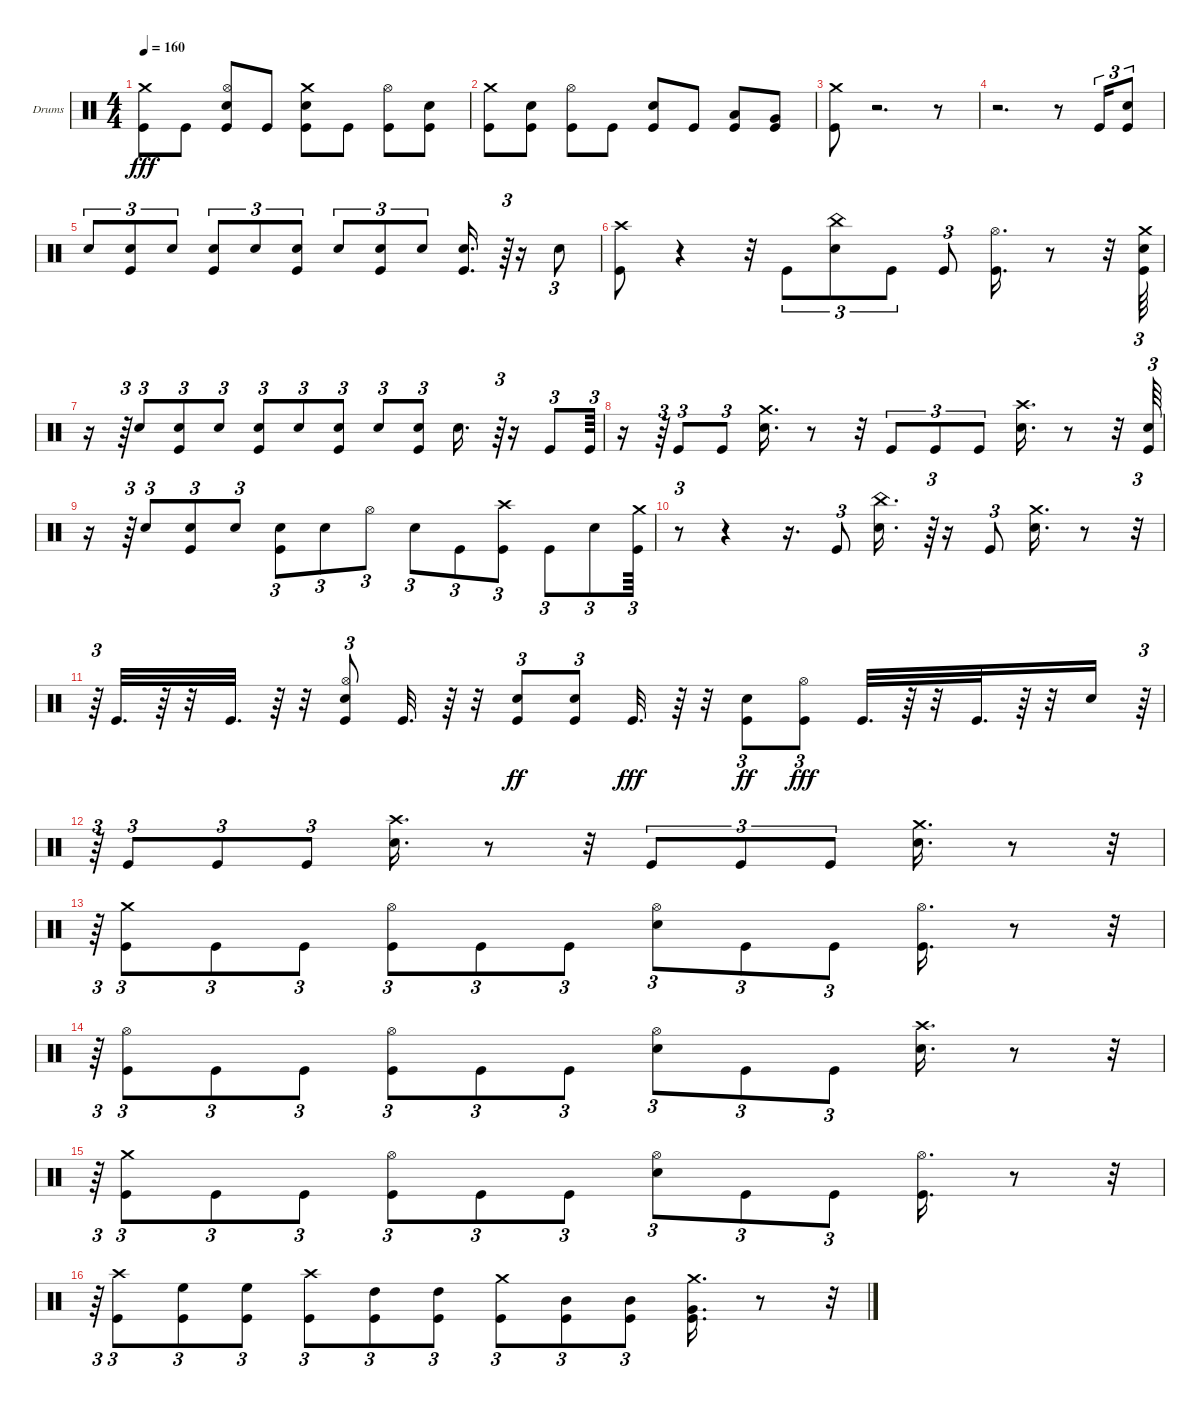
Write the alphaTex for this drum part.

\bracketExtendMode groupsimilarinstruments
\firstSystemTrackNameOrientation horizontal
\otherSystemsTrackNameOrientation horizontal
\track ("Drums" "Drums") {instrument percussion}
\staff {score}
\articulation defaults
\ts (4 4)
\tempo 160
\clef neutral
\ks c
("Crash medium (hit)" "Kick (hit)").8{dy fff} "Kick (hit)".8 ("Hi-Hat (open)" "Snare (hit) 2" "Kick (hit)").8 "Kick (hit)".8 ("Crash medium (hit)" "Snare (hit) 2" "Kick (hit)").8 "Kick (hit)".8 ("Hi-Hat (open)" "Kick (hit)").8 ("Snare (hit) 2" "Kick (hit)").8 |
("Crash medium (hit)" "Kick (hit)").8 ("Snare (hit) 2" "Kick (hit)").8 ("Hi-Hat (open)" "Kick (hit)").8 "Kick (hit)".8 ("Snare (hit) 2" "Kick (hit)").8 "Kick (hit)".8 ("Low Tom (hit)" "Kick (hit)").8 ("Very Low Tom (hit)" "Kick (hit)").8 |
("Kick (hit)" "Crash medium (hit)").8 r.2{d} r.8 |
r.2{d} r.8 "Kick (hit)".16{tu (3 2)} ("Snare (hit) 2" "Kick (hit)").8{tu (3 2)} |
"Snare (hit) 2".8{tu (3 2)} ("Snare (hit) 2" "Kick (hit)").8{tu (3 2)} "Snare (hit) 2".8{tu (3 2)} ("Kick (hit)" "Snare (hit) 2").8{tu (3 2)} "Snare (hit) 2".8{tu (3 2)} ("Kick (hit)" "Snare (hit) 2").8{tu (3 2)} "Snare (hit) 2".8{tu (3 2)} ("Kick (hit)" "Snare (hit) 2").8{tu (3 2)} "Snare (hit) 2".8{tu (3 2)} ("Snare (hit) 2" "Kick (hit)").16{d} r.64{tu (3 2)} r.16 "Snare (hit) 2".8{tu (3 2)} |
("Crash high (hit)" "Kick (hit)").8 r.4 r.32 "Kick (hit)".8{tu (3 2)} ("Snare (hit) 2" "China (hit)").8{tu (3 2)} "Kick (hit)".8{tu (3 2)} "Kick (hit)".8{tu (3 2)} ("Hi-Hat (open)" "Kick (hit)").16{d} r.8 r.32 ("Crash medium (hit)" "Kick (hit)" "Snare (hit) 2").64{tu (3 2)} |
r.16 r.64{tu (3 2)} "Snare (hit) 2".8{tu (3 2)} ("Kick (hit)" "Snare (hit) 2").8{tu (3 2)} "Snare (hit) 2".8{tu (3 2)} ("Kick (hit)" "Snare (hit) 2").8{tu (3 2)} "Snare (hit) 2".8{tu (3 2)} ("Kick (hit)" "Snare (hit) 2").8{tu (3 2)} "Snare (hit) 2".8{tu (3 2)} ("Kick (hit)" "Snare (hit) 2").8{tu (3 2)} "Snare (hit) 2".16{d} r.64{tu (3 2)} r.16 "Kick (hit)".8{tu (3 2)} "Kick (hit)".64{tu (3 2)} |
r.16 r.64{tu (3 2)} "Kick (hit)".8{tu (3 2)} "Kick (hit)".8{tu (3 2)} ("Crash medium (hit)" "Snare (hit) 2").16{d} r.8 r.32 "Kick (hit)".8{tu (3 2)} "Kick (hit)".8{tu (3 2)} "Kick (hit)".8{tu (3 2)} ("Crash high (hit)" "Snare (hit) 2").16{d} r.8 r.32 ("Kick (hit)" "Snare (hit) 2").64{tu (3 2)} |
r.16 r.64{tu (3 2)} "Snare (hit) 2".8{tu (3 2)} ("Kick (hit)" "Snare (hit) 2").8{tu (3 2)} "Snare (hit) 2".8{tu (3 2)} ("Kick (hit)" "Snare (hit) 2").8{tu (3 2)} "Snare (hit) 2".8{tu (3 2)} "Hi-Hat (open)".8{tu (3 2)} "Snare (hit) 2".8{tu (3 2)} "Kick (hit)".8{tu (3 2)} ("Crash high (hit)" "Kick (hit)").8{tu (3 2)} "Kick (hit)".8{tu (3 2)} "Snare (hit) 2".8{tu (3 2)} ("Crash medium (hit)" "Kick (hit)").64{tu (3 2)} |
r.8{tu (3 2)} r.4 r.16{d} "Kick (hit)".8{tu (3 2)} ("China (hit)" "Snare (hit) 2").16{d} r.64{tu (3 2)} r.16 "Kick (hit)".8{tu (3 2)} ("Crash medium (hit)" "Snare (hit) 2").16{d} r.8 r.32{tu (3 2)} |
r.64{tu (3 2)} "Kick (hit)".32{d} r.64 r.32 "Kick (hit)".32{d} r.64 r.32 ("Hi-Hat (open)" "Snare (hit) 2" "Kick (hit)").8{tu (3 2)} "Kick (hit)".32{d} r.64 r.32 ("Snare (hit) 2" "Kick (hit)").8{tu (3 2) dy ff} ("Snare (hit) 2" "Kick (hit)").8{tu (3 2)} "Kick (hit)".32{d dy fff} r.64 r.32 ("Snare (hit) 2" "Kick (hit)").8{tu (3 2) dy ff} ("Hi-Hat (open)" "Kick (hit)").8{tu (3 2) dy fff} "Kick (hit)".32{d} r.64 r.32 "Kick (hit)".32{d} r.64 r.32 "Snare (hit) 2".16 r.64{tu (3 2)} |
r.64{tu (3 2)} "Kick (hit)".8{tu (3 2)} "Kick (hit)".8{tu (3 2)} "Kick (hit)".8{tu (3 2)} ("Crash high (hit)" "Snare (hit) 2").16{d} r.8 r.32 "Kick (hit)".8{tu (3 2)} "Kick (hit)".8{tu (3 2)} "Kick (hit)".8{tu (3 2)} ("Crash medium (hit)" "Snare (hit) 2").16{d} r.8 r.32{tu (3 2)} |
r.64{tu (3 2)} ("Crash medium (hit)" "Kick (hit)").8{tu (3 2)} "Kick (hit)".8{tu (3 2)} "Kick (hit)".8{tu (3 2)} ("Hi-Hat (open)" "Kick (hit)").8{tu (3 2)} "Kick (hit)".8{tu (3 2)} "Kick (hit)".8{tu (3 2)} ("Hi-Hat (open)" "Snare (hit) 2").8{tu (3 2)} "Kick (hit)".8{tu (3 2)} "Kick (hit)".8{tu (3 2)} ("Kick (hit)" "Hi-Hat (open)").16{d} r.8 r.32{tu (3 2)} |
r.64{tu (3 2)} ("Hi-Hat (open)" "Kick (hit)").8{tu (3 2)} "Kick (hit)".8{tu (3 2)} "Kick (hit)".8{tu (3 2)} ("Hi-Hat (open)" "Kick (hit)").8{tu (3 2)} "Kick (hit)".8{tu (3 2)} "Kick (hit)".8{tu (3 2)} ("Hi-Hat (open)" "Snare (hit) 2").8{tu (3 2)} "Kick (hit)".8{tu (3 2)} "Kick (hit)".8{tu (3 2)} ("Crash high (hit)" "Snare (hit) 2").16{d} r.8 r.32{tu (3 2)} |
r.64{tu (3 2)} ("Crash medium (hit)" "Kick (hit)").8{tu (3 2)} "Kick (hit)".8{tu (3 2)} "Kick (hit)".8{tu (3 2)} ("Hi-Hat (open)" "Kick (hit)").8{tu (3 2)} "Kick (hit)".8{tu (3 2)} "Kick (hit)".8{tu (3 2)} ("Hi-Hat (open)" "Snare (hit) 2").8{tu (3 2)} "Kick (hit)".8{tu (3 2)} "Kick (hit)".8{tu (3 2)} ("Kick (hit)" "Hi-Hat (open)").16{d} r.8 r.32{tu (3 2)} |
r.64{tu (3 2)} ("Crash high (hit)" "Kick (hit)").8{tu (3 2)} ("Kick (hit)" "High Floor Tom (hit)").8{tu (3 2)} ("Kick (hit)" "High Floor Tom (hit)").8{tu (3 2)} ("Crash high (hit)" "Kick (hit)").8{tu (3 2)} ("Kick (hit)" "High Tom (hit)").8{tu (3 2)} ("Kick (hit)" "High Tom (hit)").8{tu (3 2)} ("Crash medium (hit)" "Kick (hit)").8{tu (3 2)} ("Mid Tom (hit)" "Kick (hit)").8{tu (3 2)} ("Mid Tom (hit)" "Kick (hit)").8{tu (3 2)} ("Very Low Tom (hit)" "Crash medium (hit)" "Kick (hit)").16{d} r.8 r.32{tu (3 2)}
